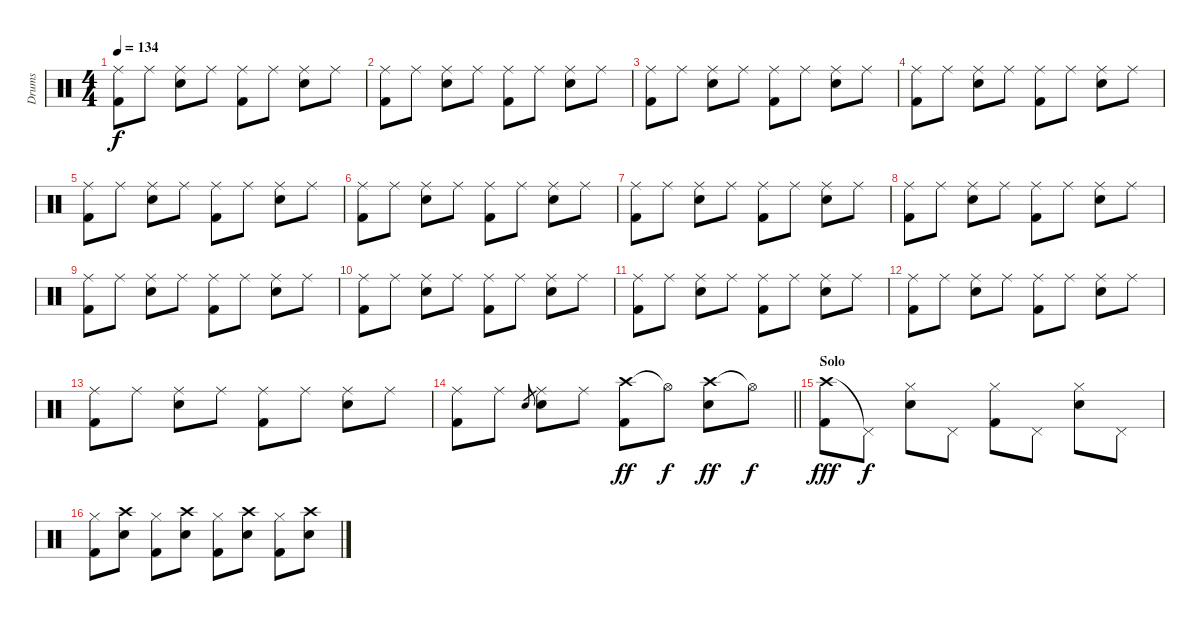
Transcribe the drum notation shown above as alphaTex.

\track ("Drums" "Drums") {instrument percussion}
\staff {score}
\articulation defaults
\ts (4 4)
\tempo 134
\clef neutral
\ks c
("Ride (middle)" "Kick (hit) 2").8{dy f} "Ride (middle)".8 ("Ride (middle)" "Snare (hit) 2").8 "Ride (middle)".8 ("Ride (middle)" "Kick (hit) 2").8 "Ride (middle)".8 ("Ride (middle)" "Snare (hit) 2").8 "Ride (middle)".8 |
("Ride (middle)" "Kick (hit) 2").8 "Ride (middle)".8 ("Ride (middle)" "Snare (hit) 2").8 "Ride (middle)".8 ("Ride (middle)" "Kick (hit) 2").8 "Ride (middle)".8 ("Ride (middle)" "Snare (hit) 2").8 "Ride (middle)".8 |
("Ride (middle)" "Kick (hit) 2").8 "Ride (middle)".8 ("Ride (middle)" "Snare (hit) 2").8 "Ride (middle)".8 ("Ride (middle)" "Kick (hit) 2").8 "Ride (middle)".8 ("Ride (middle)" "Snare (hit) 2").8 "Ride (middle)".8 |
("Ride (middle)" "Kick (hit) 2").8 "Ride (middle)".8 ("Ride (middle)" "Snare (hit) 2").8 "Ride (middle)".8 ("Ride (middle)" "Kick (hit) 2").8 "Ride (middle)".8 ("Ride (middle)" "Snare (hit) 2").8 "Ride (middle)".8 |
("Ride (middle)" "Kick (hit) 2").8 "Ride (middle)".8 ("Ride (middle)" "Snare (hit) 2").8 "Ride (middle)".8 ("Ride (middle)" "Kick (hit) 2").8 "Ride (middle)".8 ("Ride (middle)" "Snare (hit) 2").8 "Ride (middle)".8 |
("Ride (middle)" "Kick (hit) 2").8 "Ride (middle)".8 ("Ride (middle)" "Snare (hit) 2").8 "Ride (middle)".8 ("Ride (middle)" "Kick (hit) 2").8 "Ride (middle)".8 ("Ride (middle)" "Snare (hit) 2").8 "Ride (middle)".8 |
("Ride (middle)" "Kick (hit) 2").8 "Ride (middle)".8 ("Ride (middle)" "Snare (hit) 2").8 "Ride (middle)".8 ("Ride (middle)" "Kick (hit) 2").8 "Ride (middle)".8 ("Ride (middle)" "Snare (hit) 2").8 "Ride (middle)".8 |
("Ride (middle)" "Kick (hit) 2").8 "Ride (middle)".8 ("Ride (middle)" "Snare (hit) 2").8 "Ride (middle)".8 ("Ride (middle)" "Kick (hit) 2").8 "Ride (middle)".8 ("Ride (middle)" "Snare (hit) 2").8 "Ride (middle)".8 |
("Ride (middle)" "Kick (hit) 2").8 "Ride (middle)".8 ("Ride (middle)" "Snare (hit) 2").8 "Ride (middle)".8 ("Ride (middle)" "Kick (hit) 2").8 "Ride (middle)".8 ("Ride (middle)" "Snare (hit) 2").8 "Ride (middle)".8 |
("Ride (middle)" "Kick (hit) 2").8 "Ride (middle)".8 ("Ride (middle)" "Snare (hit) 2").8 "Ride (middle)".8 ("Ride (middle)" "Kick (hit) 2").8 "Ride (middle)".8 ("Ride (middle)" "Snare (hit) 2").8 "Ride (middle)".8 |
("Ride (middle)" "Kick (hit) 2").8 "Ride (middle)".8 ("Ride (middle)" "Snare (hit) 2").8 "Ride (middle)".8 ("Ride (middle)" "Kick (hit) 2").8 "Ride (middle)".8 ("Ride (middle)" "Snare (hit) 2").8 "Ride (middle)".8 |
("Ride (middle)" "Kick (hit) 2").8 "Ride (middle)".8 ("Ride (middle)" "Snare (hit) 2").8 "Ride (middle)".8 ("Ride (middle)" "Kick (hit) 2").8 "Ride (middle)".8 ("Ride (middle)" "Snare (hit) 2").8 "Ride (middle)".8 |
("Ride (middle)" "Kick (hit) 2").8 "Ride (middle)".8 ("Ride (middle)" "Snare (hit) 2").8 "Ride (middle)".8 ("Ride (middle)" "Kick (hit) 2").8 "Ride (middle)".8 ("Ride (middle)" "Snare (hit) 2").8 "Ride (middle)".8 |
\barLineRight lightlight
("Ride (middle)" "Kick (hit) 2").8 "Ride (middle)".8 "Snare (hit) 2".8{gr} ("Ride (middle)" "Snare (hit) 2").8 "Ride (middle)".8 ("Crash high (hit)" "Kick (hit) 2").8{dy ff} "Hi-Hat (open)"{t}.8{dy f} ("Crash high (hit)" "Snare (hit) 2").8{dy ff} "Hi-Hat (open)"{t}.8{dy f} |
\section ("" "Solo")
("Crash high (hit)" "Kick (hit) 2").8{dy fff} "Pedal Hi-Hat (hit)"{t}.8{dy f} ("Hi-Hat (closed)" "Snare (hit) 2").8 "Pedal Hi-Hat (hit)".8 ("Hi-Hat (closed)" "Kick (hit) 2").8 "Pedal Hi-Hat (hit)".8 ("Hi-Hat (closed)" "Snare (hit) 2").8 "Pedal Hi-Hat (hit)".8 |
("Hi-Hat (closed)" "Kick (hit) 2").8 ("Crash high (hit)" "Snare (hit) 2").8 ("Hi-Hat (closed)" "Kick (hit) 2").8 ("Crash high (hit)" "Snare (hit) 2").8 ("Hi-Hat (closed)" "Kick (hit) 2").8 ("Crash high (hit)" "Snare (hit) 2").8 ("Hi-Hat (closed)" "Kick (hit) 2").8 ("Crash high (hit)" "Snare (hit) 2").8
